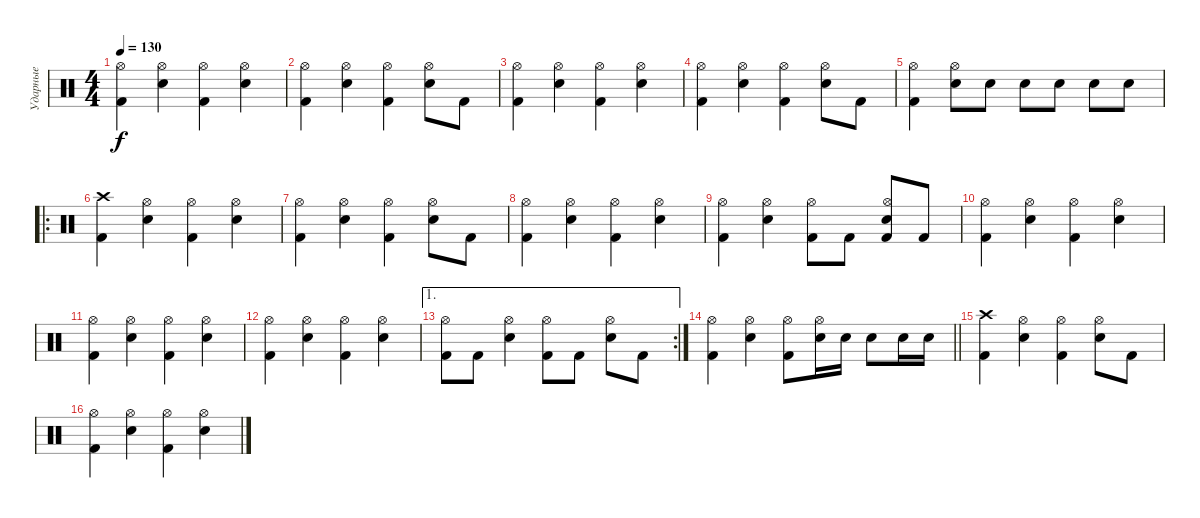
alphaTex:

\track ("Ударные" "Ударные") {instrument percussion}
\staff
\articulation defaults
\ts (4 4)
\tempo 130
\clef neutral
\ks c
("Kick (hit) 2" "Hi-Hat (open)").4{dy f} ("Snare (hit) 2" "Hi-Hat (open)").4 ("Kick (hit) 2" "Hi-Hat (open)").4 ("Snare (hit) 2" "Hi-Hat (open)").4 |
("Kick (hit) 2" "Hi-Hat (open)").4 ("Snare (hit) 2" "Hi-Hat (open)").4 ("Kick (hit) 2" "Hi-Hat (open)").4 ("Snare (hit) 2" "Hi-Hat (open)").8 "Kick (hit) 2".8 |
("Kick (hit) 2" "Hi-Hat (open)").4 ("Snare (hit) 2" "Hi-Hat (open)").4 ("Kick (hit) 2" "Hi-Hat (open)").4 ("Snare (hit) 2" "Hi-Hat (open)").4 |
("Kick (hit) 2" "Hi-Hat (open)").4 ("Snare (hit) 2" "Hi-Hat (open)").4 ("Kick (hit) 2" "Hi-Hat (open)").4 ("Snare (hit) 2" "Hi-Hat (open)").8 "Kick (hit) 2".8 |
("Kick (hit) 2" "Hi-Hat (open)").4 ("Snare (hit) 2" "Hi-Hat (open)").8 "Snare (hit) 2".8 "Snare (hit) 2".8 "Snare (hit) 2".8 "Snare (hit) 2".8 "Snare (hit) 2".8 |
\ro
("Kick (hit) 2" "Crash high (hit)").4 ("Snare (hit) 2" "Hi-Hat (open)").4 ("Kick (hit) 2" "Hi-Hat (open)").4 ("Snare (hit) 2" "Hi-Hat (open)").4 |
("Kick (hit) 2" "Hi-Hat (open)").4 ("Snare (hit) 2" "Hi-Hat (open)").4 ("Kick (hit) 2" "Hi-Hat (open)").4 ("Snare (hit) 2" "Hi-Hat (open)").8 "Kick (hit) 2".8 |
("Kick (hit) 2" "Hi-Hat (open)").4 ("Snare (hit) 2" "Hi-Hat (open)").4 ("Kick (hit) 2" "Hi-Hat (open)").4 ("Snare (hit) 2" "Hi-Hat (open)").4 |
("Kick (hit) 2" "Hi-Hat (open)").4 ("Snare (hit) 2" "Hi-Hat (open)").4 ("Kick (hit) 2" "Hi-Hat (open)").8 "Kick (hit) 2".8 ("Kick (hit) 2" "Snare (hit) 2" "Hi-Hat (open)").8 "Kick (hit) 2".8 |
("Kick (hit) 2" "Hi-Hat (open)").4 ("Snare (hit) 2" "Hi-Hat (open)").4 ("Kick (hit) 2" "Hi-Hat (open)").4 ("Snare (hit) 2" "Hi-Hat (open)").4 |
("Kick (hit) 2" "Hi-Hat (open)").4 ("Snare (hit) 2" "Hi-Hat (open)").4 ("Kick (hit) 2" "Hi-Hat (open)").4 ("Snare (hit) 2" "Hi-Hat (open)").4 |
("Kick (hit) 2" "Hi-Hat (open)").4 ("Snare (hit) 2" "Hi-Hat (open)").4 ("Kick (hit) 2" "Hi-Hat (open)").4 ("Snare (hit) 2" "Hi-Hat (open)").4 |
\ae 1
\rc 2
("Kick (hit) 2" "Hi-Hat (open)").8 "Kick (hit) 2".8 ("Snare (hit) 2" "Hi-Hat (open)").4 ("Kick (hit) 2" "Hi-Hat (open)").8 "Kick (hit) 2".8 ("Snare (hit) 2" "Hi-Hat (open)").8 "Kick (hit) 2".8 |
\barLineRight lightlight
("Kick (hit) 2" "Hi-Hat (open)").4 ("Snare (hit) 2" "Hi-Hat (open)").4 ("Kick (hit) 2" "Hi-Hat (open)").8 ("Snare (hit) 2" "Hi-Hat (open)").16 "Snare (hit) 2".16 "Snare (hit) 2".8 "Snare (hit) 2".16 "Snare (hit) 2".16 |
("Kick (hit) 2" "Crash high (hit)").4 ("Snare (hit) 2" "Hi-Hat (open)").4 ("Kick (hit) 2" "Hi-Hat (open)").4 ("Snare (hit) 2" "Hi-Hat (open)").8 "Kick (hit) 2".8 |
("Kick (hit) 2" "Hi-Hat (open)").4 ("Snare (hit) 2" "Hi-Hat (open)").4 ("Kick (hit) 2" "Hi-Hat (open)").4 ("Snare (hit) 2" "Hi-Hat (open)").4
